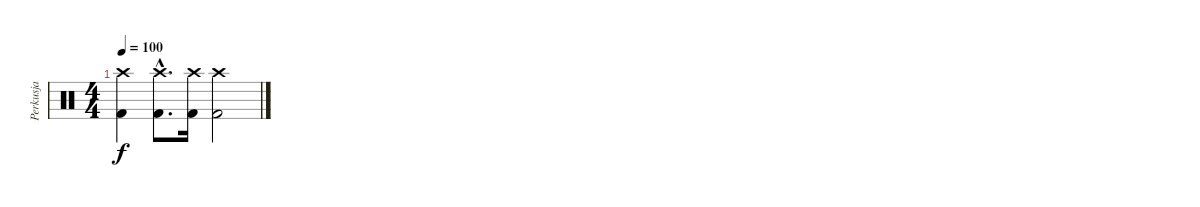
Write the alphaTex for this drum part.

\track ("Perkusja" "Perkusja") {instrument percussion}
\staff {score}
\articulation defaults
\ts (4 4)
\tempo 100
\clef neutral
\ks c
("Kick (hit) 2" "Crash high (hit)").4{dy f} ("Kick (hit) 2"{hac} "Crash high (hit)"{hac}).8{d} ("Kick (hit) 2" "Crash high (hit)").16 ("Kick (hit) 2" "Crash high (hit)").2
